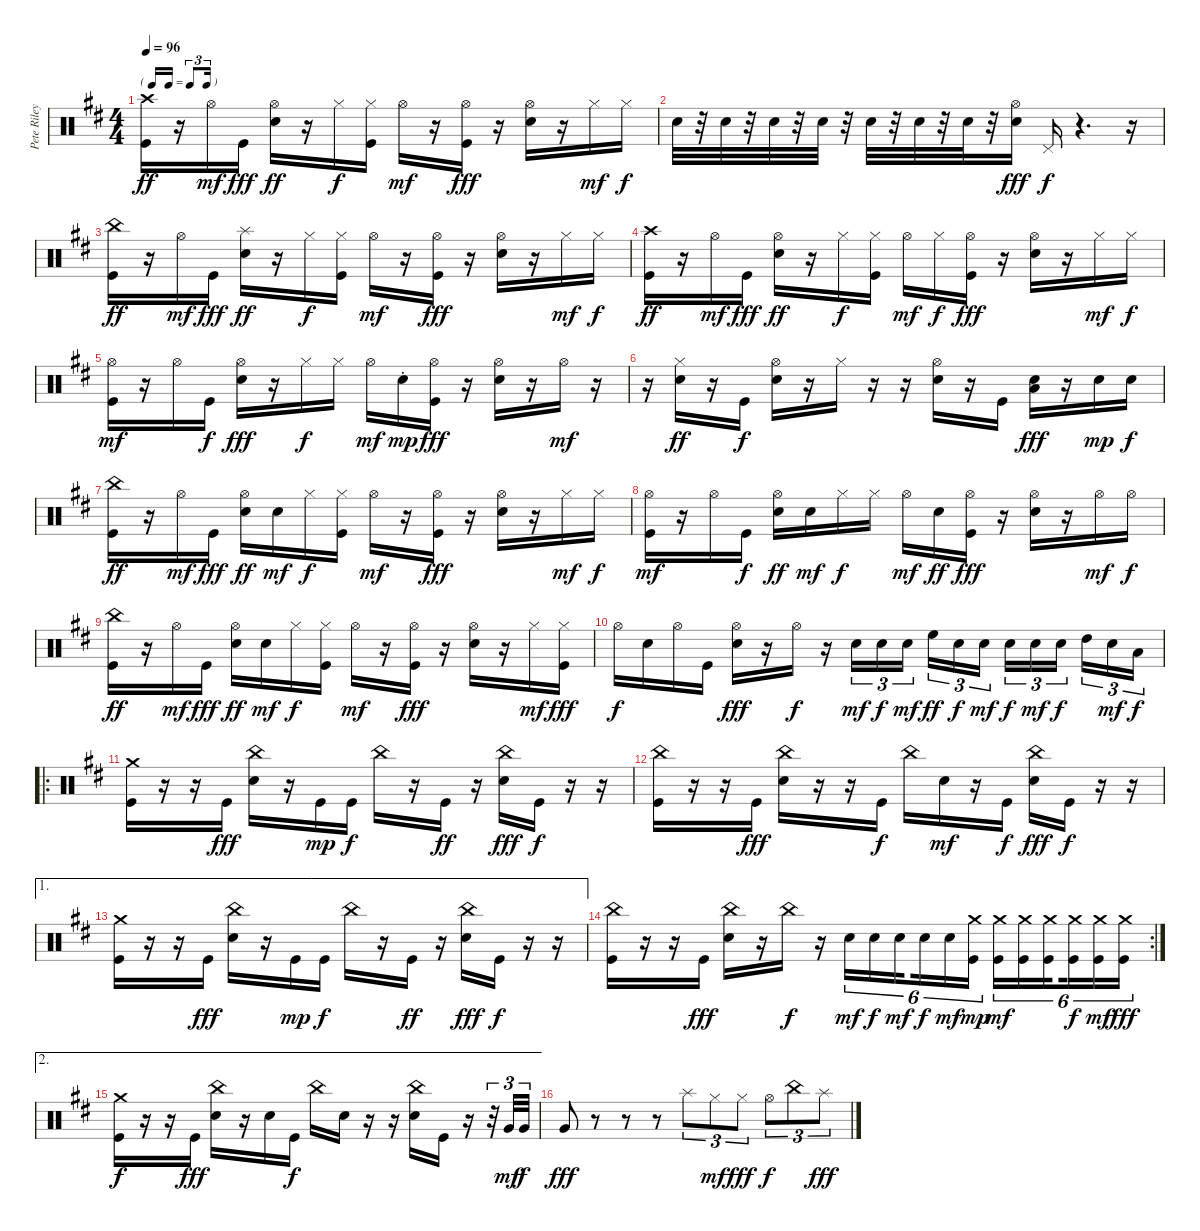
\track ("Pete Riley" "Pete Riley") {instrument percussion}
\staff {score}
\articulation defaults
\ts (4 4)
\tf triplet16th
\tempo 96
\clef neutral
\ks d
("Crash high (hit)" "Kick (hit)").16{dy ff} r.16 "Hi-Hat (open)".16{dy mf} "Kick (hit)".16{dy fff} ("Hi-Hat (open)" "Electric Snare (hit)").16{dy ff} r.16 "Hi-Hat (closed)".16{dy f} ("Hi-Hat (closed)" "Kick (hit)").16 "Hi-Hat (open)".16{dy mf} r.16 ("Hi-Hat (open)" "Kick (hit)").16{dy fff} r.16 ("Hi-Hat (open)" "Electric Snare (hit)").16 r.16 "Hi-Hat (closed)".16{dy mf} "Hi-Hat (closed)".16{dy f} |
"Electric Snare (hit)".32 r.32 "Electric Snare (hit)".32 r.32 "Electric Snare (hit)".32 r.32 "Electric Snare (hit)".32 r.32 "Electric Snare (hit)".32 r.32 "Electric Snare (hit)".32 r.32 "Electric Snare (hit)".32 r.32 ("Hi-Hat (open)" "Electric Snare (hit)").16{dy fff} "Pedal Hi-Hat (hit)".16{dy f} r.4{d} r.16 |
("China (hit)" "Kick (hit)").16{dy ff} r.16 "Hi-Hat (open)".16{dy mf} "Kick (hit)".16{dy fff} ("Splash (hit)" "Electric Snare (hit)").16{dy ff} r.16 "Hi-Hat (closed)".16{dy f} ("Hi-Hat (closed)" "Kick (hit)").16 "Hi-Hat (open)".16{dy mf} r.16 ("Hi-Hat (open)" "Kick (hit)").16{dy fff} r.16 ("Hi-Hat (open)" "Electric Snare (hit)").16 r.16 "Hi-Hat (closed)".16{dy mf} "Hi-Hat (closed)".16{dy f} |
("Crash high (hit)" "Kick (hit)").16{dy ff} r.16 "Hi-Hat (open)".16{dy mf} "Kick (hit)".16{dy fff} ("Hi-Hat (open)" "Electric Snare (hit)").16{dy ff} r.16 "Hi-Hat (closed)".16{dy f} ("Hi-Hat (closed)" "Kick (hit)").16 "Hi-Hat (open)".16{dy mf} "Hi-Hat (closed)".16{dy f} ("Hi-Hat (open)" "Kick (hit)").16{dy fff} r.16 ("Hi-Hat (open)" "Electric Snare (hit)").16 r.16 "Hi-Hat (closed)".16{dy mf} "Hi-Hat (closed)".16{dy f} |
("Hi-Hat (open)" "Kick (hit)").16{dy mf} r.16 "Hi-Hat (open)".16 "Kick (hit)".16{dy f} ("Hi-Hat (open)" "Electric Snare (hit)").16{dy fff} r.16 "Hi-Hat (closed)".16{dy f} "Hi-Hat (closed)".16 "Hi-Hat (open)".16{dy mf} "Electric Snare (hit)"{st}.16{dy mp} ("Hi-Hat (open)" "Kick (hit)").16{dy fff} r.16 ("Hi-Hat (open)" "Electric Snare (hit)").16 r.16 "Hi-Hat (open)".16{dy mf} r.16 |
r.16 ("Hi-Hat (closed)" "Electric Snare (hit)").16{dy ff} r.16 "Kick (hit)".16{dy f} ("Hi-Hat (open)" "Electric Snare (hit)").16 r.16 "Hi-Hat (closed)".16 r.16 r.16 ("Hi-Hat (open)" "Electric Snare (hit)").16 r.16 "Kick (hit)".16 ("Low Tom (hit)" "Electric Snare (hit)").16{dy fff} r.16 "Electric Snare (hit)".16{dy mp} "Electric Snare (hit)".16{dy f} |
("China (hit)" "Kick (hit)").16{dy ff} r.16 "Hi-Hat (open)".16{dy mf} "Kick (hit)".16{dy fff} ("Hi-Hat (open)" "Electric Snare (hit)").16{dy ff} "Electric Snare (hit)".16{dy mf} "Hi-Hat (closed)".16{dy f} ("Hi-Hat (closed)" "Kick (hit)").16 "Hi-Hat (open)".16{dy mf} r.16 ("Hi-Hat (open)" "Kick (hit)").16{dy fff} r.16 ("Hi-Hat (open)" "Electric Snare (hit)").16 r.16 "Hi-Hat (closed)".16{dy mf} "Hi-Hat (closed)".16{dy f} |
("Hi-Hat (open)" "Kick (hit)").16{dy mf} r.16 "Hi-Hat (open)".16 "Kick (hit)".16{dy f} ("Hi-Hat (open)" "Electric Snare (hit)").16{dy ff} "Electric Snare (hit)".16{dy mf} "Hi-Hat (closed)".16{dy f} "Hi-Hat (closed)".16 "Hi-Hat (open)".16{dy mf} "Electric Snare (hit)".16{dy ff} ("Hi-Hat (open)" "Kick (hit)").16{dy fff} r.16 ("Hi-Hat (open)" "Electric Snare (hit)").16 r.16 "Hi-Hat (open)".16{dy mf} "Hi-Hat (open)".16{dy f} |
("China (hit)" "Kick (hit)").16{dy ff} r.16 "Hi-Hat (open)".16{dy mf} "Kick (hit)".16{dy fff} ("Hi-Hat (open)" "Electric Snare (hit)").16{dy ff} "Electric Snare (hit)".16{dy mf} "Hi-Hat (closed)".16{dy f} ("Hi-Hat (closed)" "Kick (hit)").16 "Hi-Hat (open)".16{dy mf} r.16 ("Hi-Hat (open)" "Kick (hit)").16{dy fff} r.16 ("Hi-Hat (open)" "Electric Snare (hit)").16 r.16 "Hi-Hat (closed)".16{dy mf} ("Hi-Hat (closed)" "Kick (hit)").16{dy fff} |
"Hi-Hat (open)".16{dy f} "Electric Snare (hit)".16 "Hi-Hat (open)".16 "Kick (hit)".16 ("Hi-Hat (open)" "Electric Snare (hit)").16{dy fff} r.16 "Hi-Hat (open)".16{dy f} r.16 "Electric Snare (hit)".16{tu (3 2) dy mf} "Electric Snare (hit)".16{tu (3 2) dy f} "Electric Snare (hit)".16{tu (3 2) dy mf beam splitsecondary} "High Floor Tom (hit)".16{tu (3 2) dy ff} "Electric Snare (hit)".16{tu (3 2) dy f} "Electric Snare (hit)".16{tu (3 2) dy mf} "Electric Snare (hit)".16{tu (3 2) dy f} "Electric Snare (hit)".16{tu (3 2) dy mf} "Electric Snare (hit)".16{tu (3 2) dy f beam splitsecondary} "High Tom (hit)".16{tu (3 2)} "Electric Snare (hit)".16{tu (3 2) dy mf} "Low Tom (hit)".16{tu (3 2) dy f} |
\ro
("Crash medium (hit)" "Kick (hit)").16 r.16 r.16 "Kick (hit)".16{dy fff} ("China (hit)" "Electric Snare (hit)").16 r.16 "Kick (hit)".16{dy mp} "Kick (hit)".16{dy f} "China (hit)".16 r.16 "Kick (hit)".16{dy ff} r.16 ("China (hit)" "Electric Snare (hit)").16{dy fff} "Kick (hit)".16{dy f} r.16 r.16 |
("China (hit)" "Kick (hit)").16 r.16 r.16 "Kick (hit)".16{dy fff} ("China (hit)" "Electric Snare (hit)").16 r.16 r.16 "Kick (hit)".16{dy f} "China (hit)".16 "Electric Snare (hit)".16{dy mf} r.16 "Kick (hit)".16{dy f} ("China (hit)" "Electric Snare (hit)").16{dy fff} "Kick (hit)".16{dy f} r.16 r.16 |
\ae 1
("Crash medium (hit)" "Kick (hit)").16 r.16 r.16 "Kick (hit)".16{dy fff} ("China (hit)" "Electric Snare (hit)").16 r.16 "Kick (hit)".16{dy mp} "Kick (hit)".16{dy f} "China (hit)".16 r.16 "Kick (hit)".16{dy ff} r.16 ("China (hit)" "Electric Snare (hit)").16{dy fff} "Kick (hit)".16{dy f} r.16 r.16 |
\rc 2
("China (hit)" "Kick (hit)").16 r.16 r.16 "Kick (hit)".16{dy fff} ("China (hit)" "Electric Snare (hit)").16 r.16 "China (hit)".16{dy f} r.16 "Electric Snare (hit)".16{tu (6 4) dy mf} "Electric Snare (hit)".16{tu (6 4) dy f} "Electric Snare (hit)".16{tu (6 4) dy mf beam splitsecondary} "Electric Snare (hit)".16{tu (6 4) dy f} "Electric Snare (hit)".16{tu (6 4) dy mf} ("Crash medium (hit)" "Kick (hit)").16{tu (6 4) dy mp} ("Crash medium (hit)" "Kick (hit)").16{tu (6 4) dy mf} ("Crash medium (hit)" "Kick (hit)").16{tu (6 4)} ("Crash medium (hit)" "Kick (hit)").16{tu (6 4) beam splitsecondary} ("Crash medium (hit)" "Kick (hit)").16{tu (6 4) dy f} ("Crash medium (hit)" "Kick (hit)").16{tu (6 4) dy mf} ("Crash medium (hit)" "Kick (hit)").16{tu (6 4) dy fff} |
\ae 2
("Crash medium (hit)" "Kick (hit)").16{dy f} r.16 r.16 "Kick (hit)".16{dy fff} ("China (hit)" "Electric Snare (hit)").16 r.16 "Electric Snare (hit)".16 "Kick (hit)".16{dy f} "China (hit)".16 "Electric Snare (hit)".16 r.16 r.16 ("China (hit)" "Electric Snare (hit)").16 "Kick (hit)".16 r.16 r.32{tu (3 2)} "Very Low Tom (hit)".32{tu (3 2) dy mf} "Very Low Tom (hit)".32{tu (3 2) dy f} |
"Very Low Tom (hit)".8{dy fff} r.8 r.8 r.8 "Splash (hit)".8{tu (3 2)} "Hi-Hat (closed)".8{tu (3 2) dy mf} "Hi-Hat (closed)".8{tu (3 2) dy fff} "Hi-Hat (open)".8{tu (3 2) dy f} "China (hit)".8{tu (3 2)} "Splash (hit)".8{tu (3 2) dy fff}
